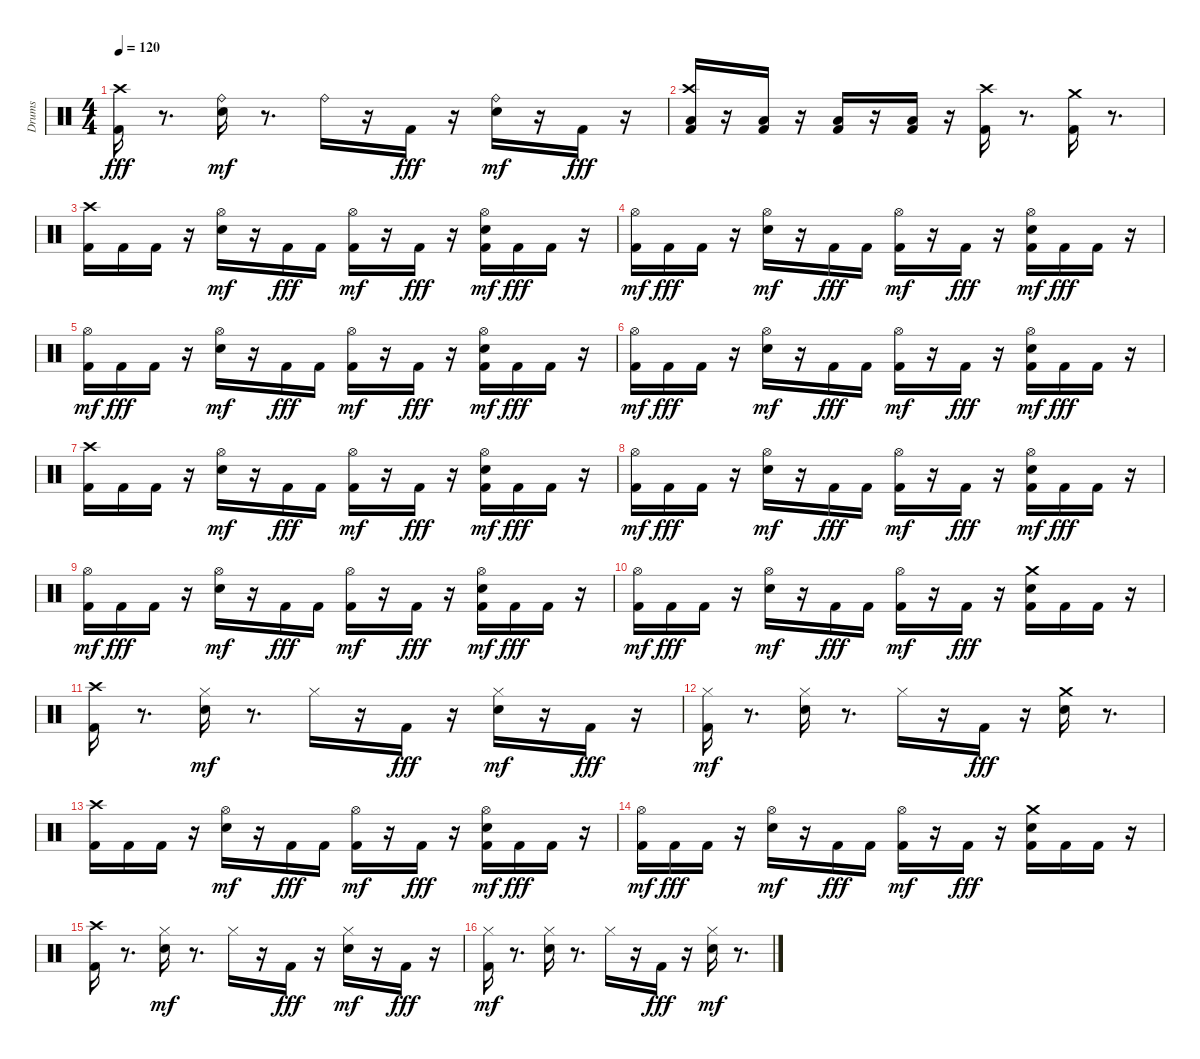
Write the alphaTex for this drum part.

\track ("Drums" "Drums") {instrument percussion}
\staff {score}
\articulation defaults
\ts (4 4)
\tempo 120
\clef neutral
\ks c
("Kick (hit) 2" "Crash high (hit)").16{dy fff} r.8{d} ("Electric Snare (hit)" "Ride (bell)").16{dy mf} r.8{d} "Ride (bell)".16 r.16 "Kick (hit) 2".16{dy fff} r.16 ("Electric Snare (hit)" "Ride (bell)").16{dy mf} r.16 "Kick (hit) 2".16{dy fff} r.16 |
("Kick (hit) 2" "Low Floor Tom (hit)" "Crash high (hit)").16 r.16 ("Kick (hit) 2" "Low Floor Tom (hit)").16 r.16 ("Kick (hit) 2" "Low Floor Tom (hit)").16 r.16 ("Kick (hit) 2" "Low Floor Tom (hit)").16 r.16 ("Kick (hit) 2" "Crash high (hit)").16 r.8{d} ("Kick (hit) 2" "Crash medium (hit)").16 r.8{d} |
("Kick (hit) 2" "Crash high (hit)").16 "Kick (hit) 2".16 "Kick (hit) 2".16 r.16 ("Electric Snare (hit)" "Hi-Hat (open)").16{dy mf} r.16 "Kick (hit) 2".16{dy fff} "Kick (hit) 2".16 ("Kick (hit) 2" "Hi-Hat (open)").16{dy mf} r.16 "Kick (hit) 2".16{dy fff} r.16 ("Electric Snare (hit)" "Kick (hit) 2" "Hi-Hat (open)").16{dy mf} "Kick (hit) 2".16{dy fff} "Kick (hit) 2".16 r.16 |
("Kick (hit) 2" "Hi-Hat (open)").16{dy mf} "Kick (hit) 2".16{dy fff} "Kick (hit) 2".16 r.16 ("Electric Snare (hit)" "Hi-Hat (open)").16{dy mf} r.16 "Kick (hit) 2".16{dy fff} "Kick (hit) 2".16 ("Kick (hit) 2" "Hi-Hat (open)").16{dy mf} r.16 "Kick (hit) 2".16{dy fff} r.16 ("Electric Snare (hit)" "Kick (hit) 2" "Hi-Hat (open)").16{dy mf} "Kick (hit) 2".16{dy fff} "Kick (hit) 2".16 r.16 |
("Kick (hit) 2" "Hi-Hat (open)").16{dy mf} "Kick (hit) 2".16{dy fff} "Kick (hit) 2".16 r.16 ("Electric Snare (hit)" "Hi-Hat (open)").16{dy mf} r.16 "Kick (hit) 2".16{dy fff} "Kick (hit) 2".16 ("Kick (hit) 2" "Hi-Hat (open)").16{dy mf} r.16 "Kick (hit) 2".16{dy fff} r.16 ("Electric Snare (hit)" "Kick (hit) 2" "Hi-Hat (open)").16{dy mf} "Kick (hit) 2".16{dy fff} "Kick (hit) 2".16 r.16 |
("Kick (hit) 2" "Hi-Hat (open)").16{dy mf} "Kick (hit) 2".16{dy fff} "Kick (hit) 2".16 r.16 ("Electric Snare (hit)" "Hi-Hat (open)").16{dy mf} r.16 "Kick (hit) 2".16{dy fff} "Kick (hit) 2".16 ("Kick (hit) 2" "Hi-Hat (open)").16{dy mf} r.16 "Kick (hit) 2".16{dy fff} r.16 ("Electric Snare (hit)" "Kick (hit) 2" "Hi-Hat (open)").16{dy mf} "Kick (hit) 2".16{dy fff} "Kick (hit) 2".16 r.16 |
("Kick (hit) 2" "Crash high (hit)").16 "Kick (hit) 2".16 "Kick (hit) 2".16 r.16 ("Electric Snare (hit)" "Hi-Hat (open)").16{dy mf} r.16 "Kick (hit) 2".16{dy fff} "Kick (hit) 2".16 ("Kick (hit) 2" "Hi-Hat (open)").16{dy mf} r.16 "Kick (hit) 2".16{dy fff} r.16 ("Electric Snare (hit)" "Kick (hit) 2" "Hi-Hat (open)").16{dy mf} "Kick (hit) 2".16{dy fff} "Kick (hit) 2".16 r.16 |
("Kick (hit) 2" "Hi-Hat (open)").16{dy mf} "Kick (hit) 2".16{dy fff} "Kick (hit) 2".16 r.16 ("Electric Snare (hit)" "Hi-Hat (open)").16{dy mf} r.16 "Kick (hit) 2".16{dy fff} "Kick (hit) 2".16 ("Kick (hit) 2" "Hi-Hat (open)").16{dy mf} r.16 "Kick (hit) 2".16{dy fff} r.16 ("Electric Snare (hit)" "Kick (hit) 2" "Hi-Hat (open)").16{dy mf} "Kick (hit) 2".16{dy fff} "Kick (hit) 2".16 r.16 |
("Kick (hit) 2" "Hi-Hat (open)").16{dy mf} "Kick (hit) 2".16{dy fff} "Kick (hit) 2".16 r.16 ("Electric Snare (hit)" "Hi-Hat (open)").16{dy mf} r.16 "Kick (hit) 2".16{dy fff} "Kick (hit) 2".16 ("Kick (hit) 2" "Hi-Hat (open)").16{dy mf} r.16 "Kick (hit) 2".16{dy fff} r.16 ("Electric Snare (hit)" "Kick (hit) 2" "Hi-Hat (open)").16{dy mf} "Kick (hit) 2".16{dy fff} "Kick (hit) 2".16 r.16 |
("Kick (hit) 2" "Hi-Hat (open)").16{dy mf} "Kick (hit) 2".16{dy fff} "Kick (hit) 2".16 r.16 ("Electric Snare (hit)" "Hi-Hat (open)").16{dy mf} r.16 "Kick (hit) 2".16{dy fff} "Kick (hit) 2".16 ("Kick (hit) 2" "Hi-Hat (open)").16{dy mf} r.16 "Kick (hit) 2".16{dy fff} r.16 ("Electric Snare (hit)" "Kick (hit) 2" "Crash medium (hit)").16 "Kick (hit) 2".16 "Kick (hit) 2".16 r.16 |
("Kick (hit) 2" "Crash high (hit)").16 r.8{d} ("Electric Snare (hit)" "Hi-Hat (closed)").16{dy mf} r.8{d} "Hi-Hat (closed)".16 r.16 "Kick (hit) 2".16{dy fff} r.16 ("Electric Snare (hit)" "Hi-Hat (closed)").16{dy mf} r.16 "Kick (hit) 2".16{dy fff} r.16 |
("Kick (hit) 2" "Hi-Hat (closed)").16{dy mf} r.8{d} ("Electric Snare (hit)" "Hi-Hat (closed)").16 r.8{d} "Hi-Hat (closed)".16 r.16 "Kick (hit) 2".16{dy fff} r.16 ("Electric Snare (hit)" "Crash medium (hit)").16 r.8{d} |
("Kick (hit) 2" "Crash high (hit)").16 "Kick (hit) 2".16 "Kick (hit) 2".16 r.16 ("Electric Snare (hit)" "Hi-Hat (open)").16{dy mf} r.16 "Kick (hit) 2".16{dy fff} "Kick (hit) 2".16 ("Kick (hit) 2" "Hi-Hat (open)").16{dy mf} r.16 "Kick (hit) 2".16{dy fff} r.16 ("Electric Snare (hit)" "Kick (hit) 2" "Hi-Hat (open)").16{dy mf} "Kick (hit) 2".16{dy fff} "Kick (hit) 2".16 r.16 |
("Kick (hit) 2" "Hi-Hat (open)").16{dy mf} "Kick (hit) 2".16{dy fff} "Kick (hit) 2".16 r.16 ("Electric Snare (hit)" "Hi-Hat (open)").16{dy mf} r.16 "Kick (hit) 2".16{dy fff} "Kick (hit) 2".16 ("Kick (hit) 2" "Hi-Hat (open)").16{dy mf} r.16 "Kick (hit) 2".16{dy fff} r.16 ("Electric Snare (hit)" "Kick (hit) 2" "Crash medium (hit)").16 "Kick (hit) 2".16 "Kick (hit) 2".16 r.16 |
("Kick (hit) 2" "Crash high (hit)").16 r.8{d} ("Electric Snare (hit)" "Hi-Hat (closed)").16{dy mf} r.8{d} "Hi-Hat (closed)".16 r.16 "Kick (hit) 2".16{dy fff} r.16 ("Electric Snare (hit)" "Hi-Hat (closed)").16{dy mf} r.16 "Kick (hit) 2".16{dy fff} r.16 |
("Kick (hit) 2" "Hi-Hat (closed)").16{dy mf} r.8{d} ("Electric Snare (hit)" "Hi-Hat (closed)").16 r.8{d} "Hi-Hat (closed)".16 r.16 "Kick (hit) 2".16{dy fff} r.16 ("Electric Snare (hit)" "Hi-Hat (closed)").16{dy mf} r.8{d}
